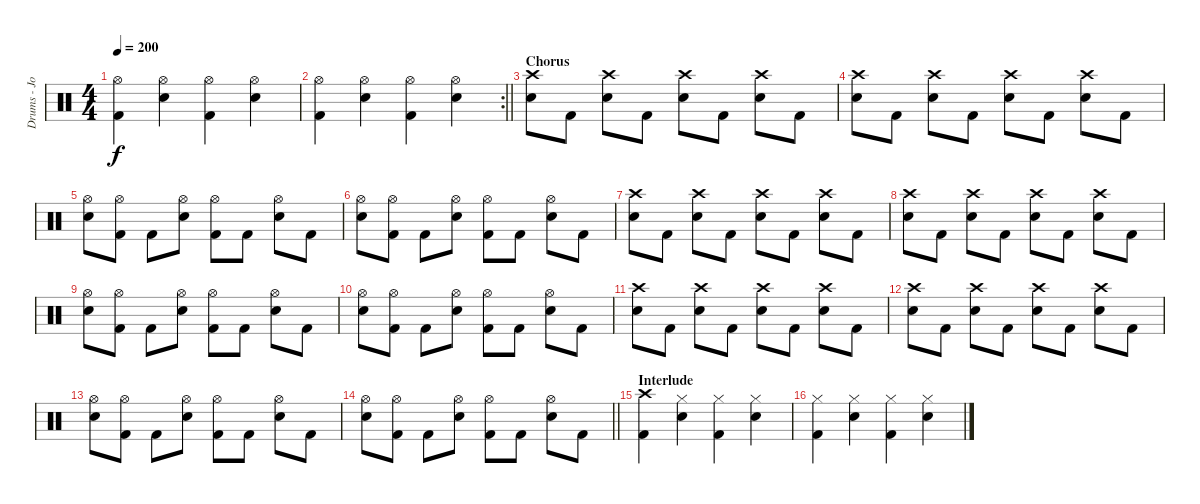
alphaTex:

\track ("Drums - John" "Drums - Jo") {instrument percussion}
\staff {score}
\articulation defaults
\ts (4 4)
\tempo 200
\clef neutral
\ks c
("Kick (hit) 2" "Hi-Hat (open)").4{dy f} ("Electric Snare (hit)" "Hi-Hat (open)").4 ("Kick (hit) 2" "Hi-Hat (open)").4 ("Electric Snare (hit)" "Hi-Hat (open)").4 |
\rc 2
\barLineRight lightlight
("Kick (hit) 2" "Hi-Hat (open)").4 ("Electric Snare (hit)" "Hi-Hat (open)").4 ("Kick (hit) 2" "Hi-Hat (open)").4 ("Electric Snare (hit)" "Hi-Hat (open)").4 |
\section ("" "Chorus")
("Crash high (hit)" "Electric Snare (hit)").8 "Kick (hit) 2".8 ("Crash high (hit)" "Electric Snare (hit)").8 "Kick (hit) 2".8 ("Crash high (hit)" "Electric Snare (hit)").8 "Kick (hit) 2".8 ("Crash high (hit)" "Electric Snare (hit)").8 "Kick (hit) 2".8 |
("Crash high (hit)" "Electric Snare (hit)").8 "Kick (hit) 2".8 ("Crash high (hit)" "Electric Snare (hit)").8 "Kick (hit) 2".8 ("Crash high (hit)" "Electric Snare (hit)").8 "Kick (hit) 2".8 ("Crash high (hit)" "Electric Snare (hit)").8 "Kick (hit) 2".8 |
("Hi-Hat (open)" "Electric Snare (hit)").8 ("Hi-Hat (open)" "Kick (hit) 2").8 "Kick (hit) 2".8 ("Hi-Hat (open)" "Electric Snare (hit)").8 ("Hi-Hat (open)" "Kick (hit) 2").8 "Kick (hit) 2".8 ("Hi-Hat (open)" "Electric Snare (hit)").8 "Kick (hit) 2".8 |
("Hi-Hat (open)" "Electric Snare (hit)").8 ("Hi-Hat (open)" "Kick (hit) 2").8 "Kick (hit) 2".8 ("Hi-Hat (open)" "Electric Snare (hit)").8 ("Hi-Hat (open)" "Kick (hit) 2").8 "Kick (hit) 2".8 ("Hi-Hat (open)" "Electric Snare (hit)").8 "Kick (hit) 2".8 |
("Crash high (hit)" "Electric Snare (hit)").8 "Kick (hit) 2".8 ("Crash high (hit)" "Electric Snare (hit)").8 "Kick (hit) 2".8 ("Crash high (hit)" "Electric Snare (hit)").8 "Kick (hit) 2".8 ("Crash high (hit)" "Electric Snare (hit)").8 "Kick (hit) 2".8 |
("Crash high (hit)" "Electric Snare (hit)").8 "Kick (hit) 2".8 ("Crash high (hit)" "Electric Snare (hit)").8 "Kick (hit) 2".8 ("Crash high (hit)" "Electric Snare (hit)").8 "Kick (hit) 2".8 ("Crash high (hit)" "Electric Snare (hit)").8 "Kick (hit) 2".8 |
("Hi-Hat (open)" "Electric Snare (hit)").8 ("Hi-Hat (open)" "Kick (hit) 2").8 "Kick (hit) 2".8 ("Hi-Hat (open)" "Electric Snare (hit)").8 ("Hi-Hat (open)" "Kick (hit) 2").8 "Kick (hit) 2".8 ("Hi-Hat (open)" "Electric Snare (hit)").8 "Kick (hit) 2".8 |
("Hi-Hat (open)" "Electric Snare (hit)").8 ("Hi-Hat (open)" "Kick (hit) 2").8 "Kick (hit) 2".8 ("Hi-Hat (open)" "Electric Snare (hit)").8 ("Hi-Hat (open)" "Kick (hit) 2").8 "Kick (hit) 2".8 ("Hi-Hat (open)" "Electric Snare (hit)").8 "Kick (hit) 2".8 |
("Crash high (hit)" "Electric Snare (hit)").8 "Kick (hit) 2".8 ("Crash high (hit)" "Electric Snare (hit)").8 "Kick (hit) 2".8 ("Crash high (hit)" "Electric Snare (hit)").8 "Kick (hit) 2".8 ("Crash high (hit)" "Electric Snare (hit)").8 "Kick (hit) 2".8 |
("Crash high (hit)" "Electric Snare (hit)").8 "Kick (hit) 2".8 ("Crash high (hit)" "Electric Snare (hit)").8 "Kick (hit) 2".8 ("Crash high (hit)" "Electric Snare (hit)").8 "Kick (hit) 2".8 ("Crash high (hit)" "Electric Snare (hit)").8 "Kick (hit) 2".8 |
("Hi-Hat (open)" "Electric Snare (hit)").8 ("Hi-Hat (open)" "Kick (hit) 2").8 "Kick (hit) 2".8 ("Hi-Hat (open)" "Electric Snare (hit)").8 ("Hi-Hat (open)" "Kick (hit) 2").8 "Kick (hit) 2".8 ("Hi-Hat (open)" "Electric Snare (hit)").8 "Kick (hit) 2".8 |
\barLineRight lightlight
("Hi-Hat (open)" "Electric Snare (hit)").8 ("Hi-Hat (open)" "Kick (hit) 2").8 "Kick (hit) 2".8 ("Hi-Hat (open)" "Electric Snare (hit)").8 ("Hi-Hat (open)" "Kick (hit) 2").8 "Kick (hit) 2".8 ("Hi-Hat (open)" "Electric Snare (hit)").8 "Kick (hit) 2".8 |
\section ("" "Interlude")
("Crash high (hit)" "Kick (hit) 2").4 ("Hi-Hat (closed)" "Electric Snare (hit)").4 ("Hi-Hat (closed)" "Kick (hit) 2").4 ("Hi-Hat (closed)" "Electric Snare (hit)").4 |
("Hi-Hat (closed)" "Kick (hit) 2").4 ("Hi-Hat (closed)" "Electric Snare (hit)").4 ("Hi-Hat (closed)" "Kick (hit) 2").4 ("Hi-Hat (closed)" "Electric Snare (hit)").4
